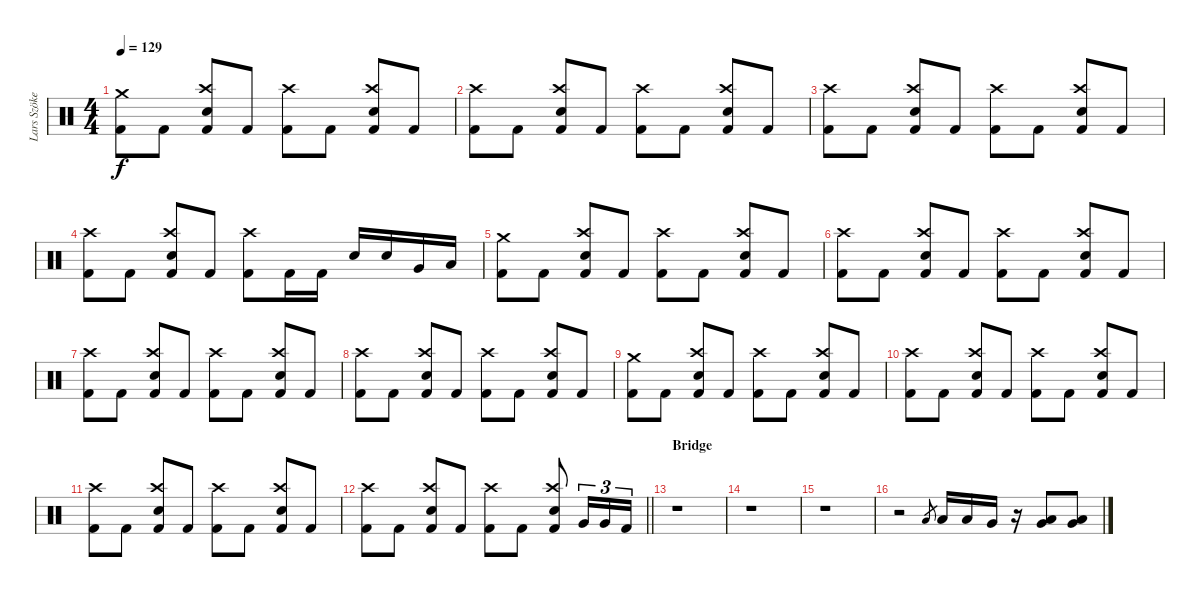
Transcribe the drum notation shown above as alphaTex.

\track ("Lars Szöke" "Lars Szöke") {instrument percussion}
\staff {score}
\articulation defaults
\ts (4 4)
\tempo 129
\clef neutral
\ks c
("Crash medium (hit)" "Kick (hit) 2").8{dy f} "Kick (hit) 2".8 ("Crash high (hit)" "Snare (hit) 2" "Kick (hit) 2").8 "Kick (hit) 2".8 ("Crash high (hit)" "Kick (hit) 2").8 "Kick (hit) 2".8 ("Crash high (hit)" "Snare (hit) 2" "Kick (hit) 2").8 "Kick (hit) 2".8 |
("Crash high (hit)" "Kick (hit) 2").8 "Kick (hit) 2".8 ("Crash high (hit)" "Snare (hit) 2" "Kick (hit) 2").8 "Kick (hit) 2".8 ("Crash high (hit)" "Kick (hit) 2").8 "Kick (hit) 2".8 ("Crash high (hit)" "Snare (hit) 2" "Kick (hit) 2").8 "Kick (hit) 2".8 |
("Crash high (hit)" "Kick (hit) 2").8 "Kick (hit) 2".8 ("Crash high (hit)" "Snare (hit) 2" "Kick (hit) 2").8 "Kick (hit) 2".8 ("Crash high (hit)" "Kick (hit) 2").8 "Kick (hit) 2".8 ("Crash high (hit)" "Snare (hit) 2" "Kick (hit) 2").8 "Kick (hit) 2".8 |
("Crash high (hit)" "Kick (hit) 2").8 "Kick (hit) 2".8 ("Crash high (hit)" "Snare (hit) 2" "Kick (hit) 2").8 "Kick (hit) 2".8 ("Crash high (hit)" "Kick (hit) 2").8 "Kick (hit) 2".16 "Kick (hit) 2".16 "Snare (hit) 2".16 "Snare (hit) 2".16 "Very Low Tom (hit)".16 "Low Floor Tom (hit)".16 |
("Crash medium (hit)" "Kick (hit) 2").8 "Kick (hit) 2".8 ("Crash high (hit)" "Snare (hit) 2" "Kick (hit) 2").8 "Kick (hit) 2".8 ("Crash high (hit)" "Kick (hit) 2").8 "Kick (hit) 2".8 ("Crash high (hit)" "Snare (hit) 2" "Kick (hit) 2").8 "Kick (hit) 2".8 |
("Crash high (hit)" "Kick (hit) 2").8 "Kick (hit) 2".8 ("Crash high (hit)" "Snare (hit) 2" "Kick (hit) 2").8 "Kick (hit) 2".8 ("Crash high (hit)" "Kick (hit) 2").8 "Kick (hit) 2".8 ("Crash high (hit)" "Snare (hit) 2" "Kick (hit) 2").8 "Kick (hit) 2".8 |
("Crash high (hit)" "Kick (hit) 2").8 "Kick (hit) 2".8 ("Crash high (hit)" "Snare (hit) 2" "Kick (hit) 2").8 "Kick (hit) 2".8 ("Crash high (hit)" "Kick (hit) 2").8 "Kick (hit) 2".8 ("Crash high (hit)" "Snare (hit) 2" "Kick (hit) 2").8 "Kick (hit) 2".8 |
("Crash high (hit)" "Kick (hit) 2").8 "Kick (hit) 2".8 ("Crash high (hit)" "Snare (hit) 2" "Kick (hit) 2").8 "Kick (hit) 2".8 ("Crash high (hit)" "Kick (hit) 2").8 "Kick (hit) 2".8 ("Crash high (hit)" "Snare (hit) 2" "Kick (hit) 2").8 "Kick (hit) 2".8 |
("Crash medium (hit)" "Kick (hit) 2").8 "Kick (hit) 2".8 ("Crash high (hit)" "Snare (hit) 2" "Kick (hit) 2").8 "Kick (hit) 2".8 ("Crash high (hit)" "Kick (hit) 2").8 "Kick (hit) 2".8 ("Crash high (hit)" "Snare (hit) 2" "Kick (hit) 2").8 "Kick (hit) 2".8 |
("Crash high (hit)" "Kick (hit) 2").8 "Kick (hit) 2".8 ("Crash high (hit)" "Snare (hit) 2" "Kick (hit) 2").8 "Kick (hit) 2".8 ("Crash high (hit)" "Kick (hit) 2").8 "Kick (hit) 2".8 ("Crash high (hit)" "Snare (hit) 2" "Kick (hit) 2").8 "Kick (hit) 2".8 |
("Crash high (hit)" "Kick (hit) 2").8 "Kick (hit) 2".8 ("Crash high (hit)" "Snare (hit) 2" "Kick (hit) 2").8 "Kick (hit) 2".8 ("Crash high (hit)" "Kick (hit) 2").8 "Kick (hit) 2".8 ("Crash high (hit)" "Snare (hit) 2" "Kick (hit) 2").8 "Kick (hit) 2".8 |
\barLineRight lightlight
("Crash high (hit)" "Kick (hit) 2").8 "Kick (hit) 2".8 ("Crash high (hit)" "Snare (hit) 2" "Kick (hit) 2").8 "Kick (hit) 2".8 ("Crash high (hit)" "Kick (hit) 2").8 "Kick (hit) 2".8 ("Crash high (hit)" "Snare (hit) 2" "Kick (hit) 2").8 "Very Low Tom (hit)".16{tu (3 2)} "Very Low Tom (hit)".16{tu (3 2)} "Kick (hit) 2".16{tu (3 2)} |
\section ("" "Bridge")
r.1 |
r.1 |
r.1 |
r.2 "Low Tom (hit)".8{gr} "Low Tom (hit)".16 "Low Tom (hit)".16 "Very Low Tom (hit)".16 r.16 ("Very Low Tom (hit)" "Low Floor Tom (hit)").8 ("Very Low Tom (hit)" "Low Floor Tom (hit)").8
